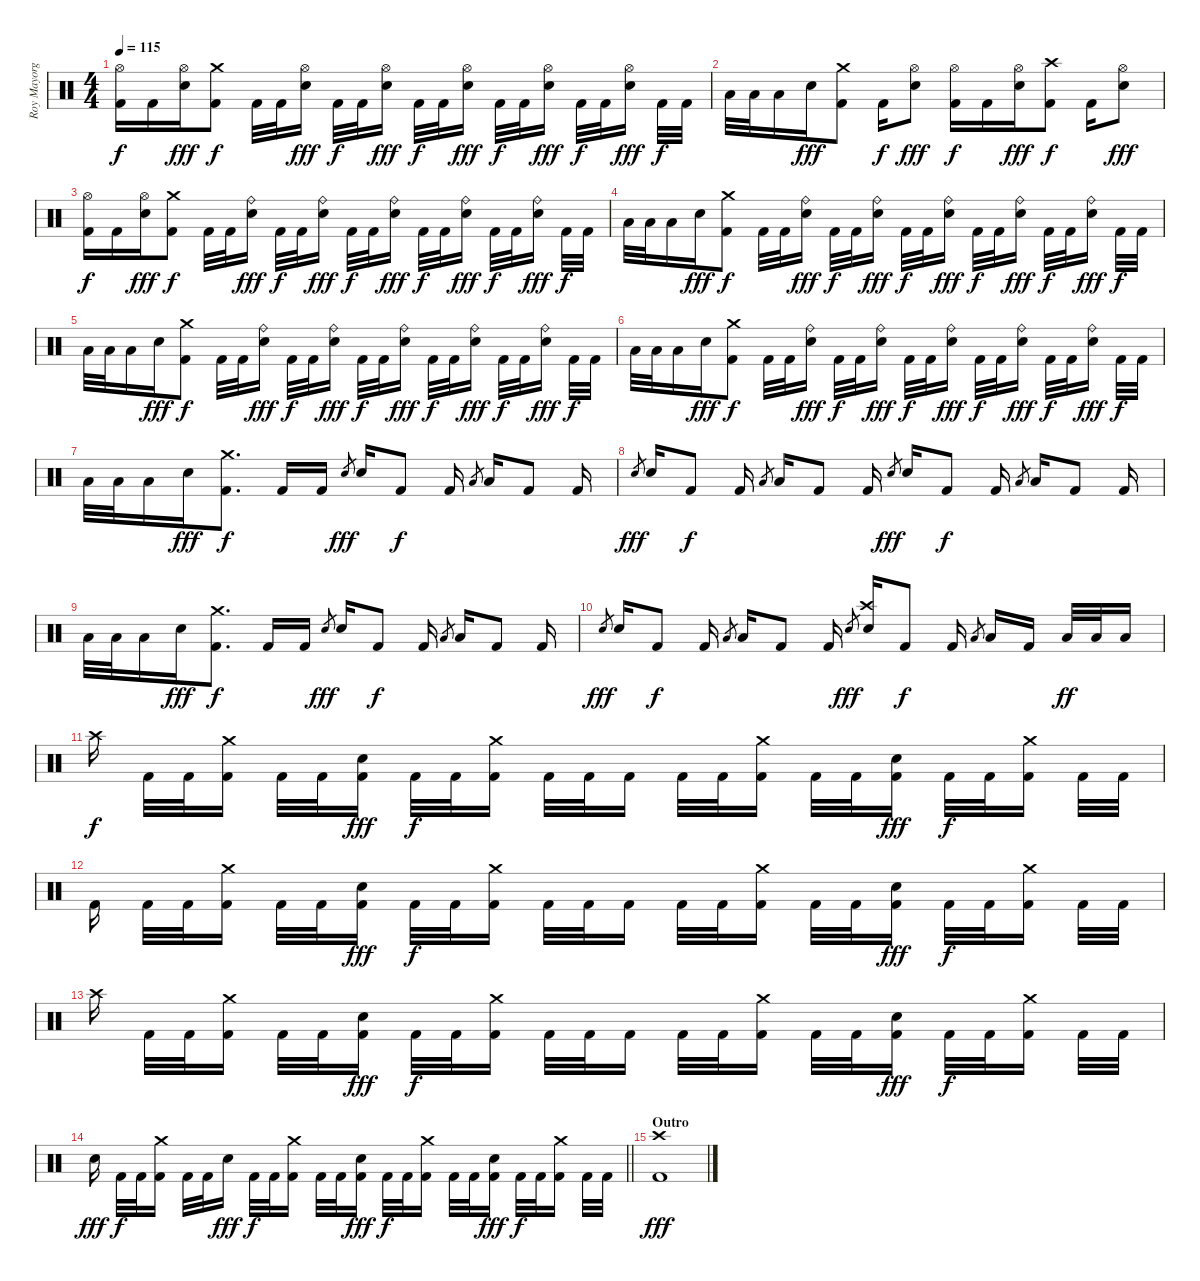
\track ("Roy Mayorga" "Roy Mayorg") {instrument percussion}
\staff {score}
\articulation defaults
\ts (4 4)
\tempo 115
\clef neutral
\ks c
("Hi-Hat (open)" "Kick (hit) 2").16{dy f} "Kick (hit) 2".16 ("Hi-Hat (open)" "Electric Snare (hit)").16{dy fff} ("Crash medium (hit)" "Kick (hit) 2").8{dy f beam split} "Kick (hit) 2".32 "Kick (hit) 2".32 ("Hi-Hat (open)" "Electric Snare (hit)").16{dy fff beam split} "Kick (hit) 2".32{dy f} "Kick (hit) 2".32{beam merge} ("Hi-Hat (open)" "Electric Snare (hit)").16{dy fff beam split} "Kick (hit) 2".32{dy f} "Kick (hit) 2".32 ("Hi-Hat (open)" "Electric Snare (hit)").16{dy fff beam split} "Kick (hit) 2".32{dy f} "Kick (hit) 2".32{beam merge} ("Hi-Hat (open)" "Electric Snare (hit)").16{dy fff beam split} "Kick (hit) 2".32{dy f} "Kick (hit) 2".32 ("Hi-Hat (open)" "Electric Snare (hit)").16{dy fff beam split} "Kick (hit) 2".32{dy f beam Down} "Kick (hit) 2".32{beam Down} |
"Low Tom (hit)".32 "Low Tom (hit)".32 "Low Tom (hit)".16 "Electric Snare (hit)".16{dy fff} ("Crash medium (hit)" "Kick (hit) 2").8 "Kick (hit) 2".16{dy f} ("Hi-Hat (open)" "Electric Snare (hit)").8{dy fff} ("Hi-Hat (open)" "Kick (hit) 2").16{dy f} "Kick (hit) 2".16 ("Hi-Hat (open)" "Electric Snare (hit)").16{dy fff} ("Crash high (hit)" "Kick (hit) 2").8{dy f} "Kick (hit) 2".16 ("Hi-Hat (open)" "Electric Snare (hit)").8{dy fff} |
("Hi-Hat (open)" "Kick (hit) 2").16{dy f} "Kick (hit) 2".16 ("Hi-Hat (open)" "Electric Snare (hit)").16{dy fff} ("Crash medium (hit)" "Kick (hit) 2").8{dy f} "Kick (hit) 2".32 "Kick (hit) 2".32 ("Ride (bell)" "Electric Snare (hit)").16{dy fff beam split} "Kick (hit) 2".32{dy f} "Kick (hit) 2".32{beam merge} ("Ride (bell)" "Electric Snare (hit)").16{dy fff beam split} "Kick (hit) 2".32{dy f} "Kick (hit) 2".32 ("Ride (bell)" "Electric Snare (hit)").16{dy fff beam split} "Kick (hit) 2".32{dy f} "Kick (hit) 2".32{beam merge} ("Ride (bell)" "Electric Snare (hit)").16{dy fff beam split} "Kick (hit) 2".32{dy f} "Kick (hit) 2".32 ("Ride (bell)" "Electric Snare (hit)").16{dy fff beam split} "Kick (hit) 2".32{dy f beam Down} "Kick (hit) 2".32{beam Down} |
"Low Tom (hit)".32 "Low Tom (hit)".32 "Low Tom (hit)".16 "Electric Snare (hit)".16{dy fff} ("Crash medium (hit)" "Kick (hit) 2").8{dy f} "Kick (hit) 2".32 "Kick (hit) 2".32 ("Ride (bell)" "Electric Snare (hit)").16{dy fff beam split} "Kick (hit) 2".32{dy f} "Kick (hit) 2".32{beam merge} ("Ride (bell)" "Electric Snare (hit)").16{dy fff beam split} "Kick (hit) 2".32{dy f} "Kick (hit) 2".32 ("Ride (bell)" "Electric Snare (hit)").16{dy fff beam split} "Kick (hit) 2".32{dy f} "Kick (hit) 2".32{beam merge} ("Ride (bell)" "Electric Snare (hit)").16{dy fff beam split} "Kick (hit) 2".32{dy f} "Kick (hit) 2".32 ("Ride (bell)" "Electric Snare (hit)").16{dy fff beam split} "Kick (hit) 2".32{dy f beam Down} "Kick (hit) 2".32{beam Down} |
"Low Tom (hit)".32 "Low Tom (hit)".32 "Low Tom (hit)".16 "Electric Snare (hit)".16{dy fff} ("Crash medium (hit)" "Kick (hit) 2").8{dy f} "Kick (hit) 2".32 "Kick (hit) 2".32 ("Ride (bell)" "Electric Snare (hit)").16{dy fff beam split} "Kick (hit) 2".32{dy f} "Kick (hit) 2".32{beam merge} ("Ride (bell)" "Electric Snare (hit)").16{dy fff beam split} "Kick (hit) 2".32{dy f} "Kick (hit) 2".32 ("Ride (bell)" "Electric Snare (hit)").16{dy fff beam split} "Kick (hit) 2".32{dy f} "Kick (hit) 2".32{beam merge} ("Ride (bell)" "Electric Snare (hit)").16{dy fff beam split} "Kick (hit) 2".32{dy f} "Kick (hit) 2".32 ("Ride (bell)" "Electric Snare (hit)").16{dy fff beam split} "Kick (hit) 2".32{dy f beam Down} "Kick (hit) 2".32{beam Down} |
"Low Tom (hit)".32 "Low Tom (hit)".32 "Low Tom (hit)".16 "Electric Snare (hit)".16{dy fff} ("Crash medium (hit)" "Kick (hit) 2").8{dy f} "Kick (hit) 2".32 "Kick (hit) 2".32 ("Ride (bell)" "Electric Snare (hit)").16{dy fff beam split} "Kick (hit) 2".32{dy f} "Kick (hit) 2".32{beam merge} ("Ride (bell)" "Electric Snare (hit)").16{dy fff beam split} "Kick (hit) 2".32{dy f} "Kick (hit) 2".32 ("Ride (bell)" "Electric Snare (hit)").16{dy fff beam split} "Kick (hit) 2".32{dy f} "Kick (hit) 2".32{beam merge} ("Ride (bell)" "Electric Snare (hit)").16{dy fff beam split} "Kick (hit) 2".32{dy f} "Kick (hit) 2".32 ("Ride (bell)" "Electric Snare (hit)").16{dy fff beam split} "Kick (hit) 2".32{dy f beam Down} "Kick (hit) 2".32{beam Down} |
"Low Tom (hit)".32 "Low Tom (hit)".32 "Low Tom (hit)".16 "Electric Snare (hit)".16{dy fff} ("Crash medium (hit)" "Kick (hit) 2").8{d dy f} "Kick (hit) 2".16 "Kick (hit) 2".16 "Electric Snare (hit)".8{gr dy fff beam merge} "Electric Snare (hit)".16 "Kick (hit) 2".8{dy f beam split} "Kick (hit) 2".16 "Low Tom (hit)".8{gr beam merge} "Low Tom (hit)".16 "Kick (hit) 2".8{beam split} "Kick (hit) 2".16 |
"Electric Snare (hit)".8{gr dy fff} "Electric Snare (hit)".16 "Kick (hit) 2".8{dy f beam split} "Kick (hit) 2".16 "Low Tom (hit)".8{gr beam merge} "Low Tom (hit)".16 "Kick (hit) 2".8{beam split} "Kick (hit) 2".16 "Electric Snare (hit)".8{gr dy fff beam merge} "Electric Snare (hit)".16 "Kick (hit) 2".8{dy f beam split} "Kick (hit) 2".16 "Low Tom (hit)".8{gr beam merge} "Low Tom (hit)".16 "Kick (hit) 2".8{beam split} "Kick (hit) 2".16 |
"Low Tom (hit)".32 "Low Tom (hit)".32 "Low Tom (hit)".16 "Electric Snare (hit)".16{dy fff} ("Crash medium (hit)" "Kick (hit) 2").8{d dy f} "Kick (hit) 2".16 "Kick (hit) 2".16 "Electric Snare (hit)".8{gr dy fff beam merge} "Electric Snare (hit)".16 "Kick (hit) 2".8{dy f beam split} "Kick (hit) 2".16 "Low Tom (hit)".8{gr beam merge} "Low Tom (hit)".16 "Kick (hit) 2".8{beam split} "Kick (hit) 2".16 |
"Electric Snare (hit)".8{gr dy fff} "Electric Snare (hit)".16 "Kick (hit) 2".8{dy f beam split} "Kick (hit) 2".16 "Low Tom (hit)".8{gr beam merge} "Low Tom (hit)".16 "Kick (hit) 2".8{beam split} "Kick (hit) 2".16{beam Up} "Electric Snare (hit)".8{gr dy fff beam merge} ("Crash high (hit)" "Electric Snare (hit)").16{beam Up} "Kick (hit) 2".8{dy f beam Up beam split} "Kick (hit) 2".16 "Low Tom (hit)".8{gr beam merge} "Low Tom (hit)".16 "Kick (hit) 2".16{beam split} "Low Tom (hit)".32{dy ff} "Low Tom (hit)".32 "Low Tom (hit)".16 |
"Crash high (hit)".16{dy f beam split} "Kick (hit) 2".32 "Kick (hit) 2".32 ("Crash medium (hit)" "Kick (hit) 2").16{beam split} "Kick (hit) 2".32{beam Down} "Kick (hit) 2".32{beam Down beam merge} ("Electric Snare (hit)" "Kick (hit) 2").16{dy fff beam Down beam split} "Kick (hit) 2".32{dy f} "Kick (hit) 2".32 ("Crash medium (hit)" "Kick (hit) 2").16{beam split} "Kick (hit) 2".32{beam Down} "Kick (hit) 2".32{beam Down beam merge} "Kick (hit) 2".16{beam Down beam split} "Kick (hit) 2".32 "Kick (hit) 2".32 ("Crash medium (hit)" "Kick (hit) 2").16{beam split} "Kick (hit) 2".32{beam Down} "Kick (hit) 2".32{beam Down beam merge} ("Electric Snare (hit)" "Kick (hit) 2").16{dy fff beam Down beam split} "Kick (hit) 2".32{dy f} "Kick (hit) 2".32 ("Crash medium (hit)" "Kick (hit) 2").16{beam split} "Kick (hit) 2".32{beam Down} "Kick (hit) 2".32{beam Down} |
"Kick (hit) 2".16{beam Down beam split} "Kick (hit) 2".32 "Kick (hit) 2".32 ("Crash medium (hit)" "Kick (hit) 2").16{beam split} "Kick (hit) 2".32{beam Down} "Kick (hit) 2".32{beam Down beam merge} ("Electric Snare (hit)" "Kick (hit) 2").16{dy fff beam Down beam split} "Kick (hit) 2".32{dy f} "Kick (hit) 2".32 ("Crash medium (hit)" "Kick (hit) 2").16{beam split} "Kick (hit) 2".32{beam Down} "Kick (hit) 2".32{beam Down beam merge} "Kick (hit) 2".16{beam Down beam split} "Kick (hit) 2".32 "Kick (hit) 2".32 ("Crash medium (hit)" "Kick (hit) 2").16{beam split} "Kick (hit) 2".32{beam Down} "Kick (hit) 2".32{beam Down beam merge} ("Electric Snare (hit)" "Kick (hit) 2").16{dy fff beam Down beam split} "Kick (hit) 2".32{dy f} "Kick (hit) 2".32 ("Crash medium (hit)" "Kick (hit) 2").16{beam split} "Kick (hit) 2".32{beam Down} "Kick (hit) 2".32{beam Down} |
"Crash high (hit)".16{beam split} "Kick (hit) 2".32 "Kick (hit) 2".32 ("Crash medium (hit)" "Kick (hit) 2").16{beam split} "Kick (hit) 2".32{beam Down} "Kick (hit) 2".32{beam Down beam merge} ("Electric Snare (hit)" "Kick (hit) 2").16{dy fff beam Down beam split} "Kick (hit) 2".32{dy f} "Kick (hit) 2".32 ("Crash medium (hit)" "Kick (hit) 2").16{beam split} "Kick (hit) 2".32{beam Down} "Kick (hit) 2".32{beam Down beam merge} "Kick (hit) 2".16{beam Down beam split} "Kick (hit) 2".32 "Kick (hit) 2".32 ("Crash medium (hit)" "Kick (hit) 2").16{beam split} "Kick (hit) 2".32{beam Down} "Kick (hit) 2".32{beam Down beam merge} ("Electric Snare (hit)" "Kick (hit) 2").16{dy fff beam Down beam split} "Kick (hit) 2".32{dy f} "Kick (hit) 2".32 ("Crash medium (hit)" "Kick (hit) 2").16{beam split} "Kick (hit) 2".32{beam Down} "Kick (hit) 2".32{beam Down} |
\barLineRight lightlight "Electric Snare (hit)".16{dy fff beam Down beam split} "Kick (hit) 2".32{dy f} "Kick (hit) 2".32
("Crash medium (hit)" "Kick (hit) 2").16{beam split} "Kick (hit) 2".32{beam Down} "Kick (hit) 2".32{beam Down beam merge} "Electric Snare (hit)".16{dy fff beam Down beam split} "Kick (hit) 2".32{dy f beam Down beam merge} "Kick (hit) 2".32{beam Down} ("Crash medium (hit)" "Kick (hit) 2").16{beam Down beam split} "Kick (hit) 2".32{beam Down} "Kick (hit) 2".32{beam Down beam merge} ("Electric Snare (hit)" "Kick (hit) 2").16{dy fff beam Down beam split} "Kick (hit) 2".32{dy f beam Down} "Kick (hit) 2".32{beam Down} ("Crash medium (hit)" "Kick (hit) 2").16{beam Down beam split} "Kick (hit) 2".32{beam Down} "Kick (hit) 2".32{beam Down beam merge} ("Electric Snare (hit)" "Kick (hit) 2").16{dy fff beam Down beam split} "Kick (hit) 2".32{dy f beam Down} "Kick (hit) 2".32{beam Down} ("Crash medium (hit)" "Kick (hit) 2").16{beam Down beam split} "Kick (hit) 2".32{beam Down} "Kick (hit) 2".32{beam Down} |
\section ("" "Outro")
("Crash high (hit)" "Kick (hit) 2").1{dy fff}
